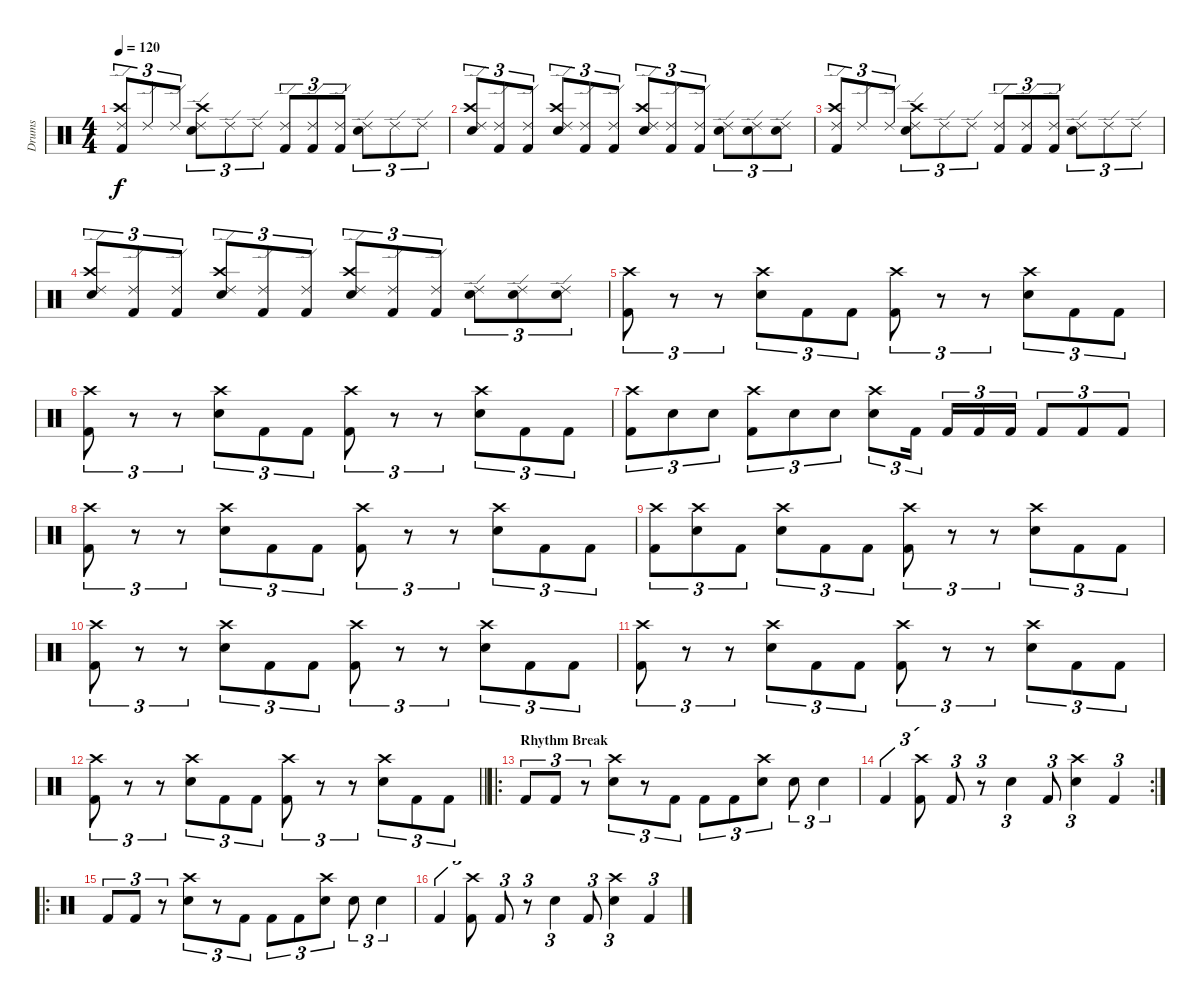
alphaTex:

\track ("Drums" "Drums") {instrument percussion}
\staff {score}
\articulation defaults
\ts (4 4)
\tempo 120
\clef neutral
\ks c
("Ride (edge) 2" "Crash high (hit)" "Kick (hit) 2").8{tu (3 2) dy f} "Ride (edge) 2".8{tu (3 2)} "Ride (edge) 2".8{tu (3 2)} ("Ride (edge) 2" "Crash high (hit)" "Electric Snare (hit)").8{tu (3 2)} "Ride (edge) 2".8{tu (3 2)} "Ride (edge) 2".8{tu (3 2)} ("Ride (edge) 2" "Kick (hit) 2").8{tu (3 2)} ("Ride (edge) 2" "Kick (hit) 2").8{tu (3 2)} ("Ride (edge) 2" "Kick (hit) 2").8{tu (3 2)} ("Ride (edge) 2" "Electric Snare (hit)").8{tu (3 2)} "Ride (edge) 2".8{tu (3 2)} "Ride (edge) 2".8{tu (3 2)} |
("Ride (edge) 2" "Crash high (hit)" "Electric Snare (hit)").8{tu (3 2)} ("Ride (edge) 2" "Kick (hit) 2").8{tu (3 2)} ("Ride (edge) 2" "Kick (hit) 2").8{tu (3 2)} ("Ride (edge) 2" "Crash high (hit)" "Electric Snare (hit)").8{tu (3 2)} ("Ride (edge) 2" "Kick (hit) 2").8{tu (3 2)} ("Ride (edge) 2" "Kick (hit) 2").8{tu (3 2)} ("Ride (edge) 2" "Crash high (hit)" "Electric Snare (hit)").8{tu (3 2)} ("Ride (edge) 2" "Kick (hit) 2").8{tu (3 2)} ("Ride (edge) 2" "Kick (hit) 2").8{tu (3 2)} ("Ride (edge) 2" "Electric Snare (hit)").8{tu (3 2)} ("Ride (edge) 2" "Electric Snare (hit)").8{tu (3 2)} ("Ride (edge) 2" "Electric Snare (hit)").8{tu (3 2)} |
("Ride (edge) 2" "Crash high (hit)" "Kick (hit) 2").8{tu (3 2)} "Ride (edge) 2".8{tu (3 2)} "Ride (edge) 2".8{tu (3 2)} ("Ride (edge) 2" "Crash high (hit)" "Electric Snare (hit)").8{tu (3 2)} "Ride (edge) 2".8{tu (3 2)} "Ride (edge) 2".8{tu (3 2)} ("Ride (edge) 2" "Kick (hit) 2").8{tu (3 2)} ("Ride (edge) 2" "Kick (hit) 2").8{tu (3 2)} ("Ride (edge) 2" "Kick (hit) 2").8{tu (3 2)} ("Ride (edge) 2" "Electric Snare (hit)").8{tu (3 2)} "Ride (edge) 2".8{tu (3 2)} "Ride (edge) 2".8{tu (3 2)} |
("Ride (edge) 2" "Crash high (hit)" "Electric Snare (hit)").8{tu (3 2)} ("Ride (edge) 2" "Kick (hit) 2").8{tu (3 2)} ("Ride (edge) 2" "Kick (hit) 2").8{tu (3 2)} ("Ride (edge) 2" "Crash high (hit)" "Electric Snare (hit)").8{tu (3 2)} ("Ride (edge) 2" "Kick (hit) 2").8{tu (3 2)} ("Ride (edge) 2" "Kick (hit) 2").8{tu (3 2)} ("Ride (edge) 2" "Crash high (hit)" "Electric Snare (hit)").8{tu (3 2)} ("Ride (edge) 2" "Kick (hit) 2").8{tu (3 2)} ("Ride (edge) 2" "Kick (hit) 2").8{tu (3 2)} ("Ride (edge) 2" "Electric Snare (hit)").8{tu (3 2)} ("Ride (edge) 2" "Electric Snare (hit)").8{tu (3 2)} ("Ride (edge) 2" "Electric Snare (hit)").8{tu (3 2)} |
("Kick (hit) 2" "Crash high (hit)").8{tu (3 2)} r.8{tu (3 2)} r.8{tu (3 2)} ("Electric Snare (hit)" "Crash high (hit)").8{tu (3 2)} "Kick (hit) 2".8{tu (3 2)} "Kick (hit) 2".8{tu (3 2)} ("Kick (hit) 2" "Crash high (hit)").8{tu (3 2)} r.8{tu (3 2)} r.8{tu (3 2)} ("Electric Snare (hit)" "Crash high (hit)").8{tu (3 2)} "Kick (hit) 2".8{tu (3 2)} "Kick (hit) 2".8{tu (3 2)} |
("Kick (hit) 2" "Crash high (hit)").8{tu (3 2)} r.8{tu (3 2)} r.8{tu (3 2)} ("Electric Snare (hit)" "Crash high (hit)").8{tu (3 2)} "Kick (hit) 2".8{tu (3 2)} "Kick (hit) 2".8{tu (3 2)} ("Kick (hit) 2" "Crash high (hit)").8{tu (3 2)} r.8{tu (3 2)} r.8{tu (3 2)} ("Electric Snare (hit)" "Crash high (hit)").8{tu (3 2)} "Kick (hit) 2".8{tu (3 2)} "Kick (hit) 2".8{tu (3 2)} |
("Kick (hit) 2" "Crash high (hit)").8{tu (3 2)} "Electric Snare (hit)".8{tu (3 2)} "Electric Snare (hit)".8{tu (3 2)} ("Kick (hit) 2" "Crash high (hit)").8{tu (3 2)} "Electric Snare (hit)".8{tu (3 2)} "Electric Snare (hit)".8{tu (3 2)} ("Electric Snare (hit)" "Crash high (hit)").8{tu (3 2)} "Kick (hit) 2".16{tu (3 2) beam splitsecondary} "Kick (hit) 2".16{tu (3 2)} "Kick (hit) 2".16{tu (3 2)} "Kick (hit) 2".16{tu (3 2)} "Kick (hit) 2".8{tu (3 2)} "Kick (hit) 2".8{tu (3 2)} "Kick (hit) 2".8{tu (3 2)} |
("Kick (hit) 2" "Crash high (hit)").8{tu (3 2)} r.8{tu (3 2)} r.8{tu (3 2)} ("Electric Snare (hit)" "Crash high (hit)").8{tu (3 2)} "Kick (hit) 2".8{tu (3 2)} "Kick (hit) 2".8{tu (3 2)} ("Kick (hit) 2" "Crash high (hit)").8{tu (3 2)} r.8{tu (3 2)} r.8{tu (3 2)} ("Electric Snare (hit)" "Crash high (hit)").8{tu (3 2)} "Kick (hit) 2".8{tu (3 2)} "Kick (hit) 2".8{tu (3 2)} |
("Kick (hit) 2" "Crash high (hit)").8{tu (3 2)} ("Electric Snare (hit)" "Crash high (hit)").8{tu (3 2)} "Kick (hit) 2".8{tu (3 2)} ("Electric Snare (hit)" "Crash high (hit)").8{tu (3 2)} "Kick (hit) 2".8{tu (3 2)} "Kick (hit) 2".8{tu (3 2)} ("Kick (hit) 2" "Crash high (hit)").8{tu (3 2)} r.8{tu (3 2)} r.8{tu (3 2)} ("Electric Snare (hit)" "Crash high (hit)").8{tu (3 2)} "Kick (hit) 2".8{tu (3 2)} "Kick (hit) 2".8{tu (3 2)} |
("Kick (hit) 2" "Crash high (hit)").8{tu (3 2)} r.8{tu (3 2)} r.8{tu (3 2)} ("Electric Snare (hit)" "Crash high (hit)").8{tu (3 2)} "Kick (hit) 2".8{tu (3 2)} "Kick (hit) 2".8{tu (3 2)} ("Kick (hit) 2" "Crash high (hit)").8{tu (3 2)} r.8{tu (3 2)} r.8{tu (3 2)} ("Electric Snare (hit)" "Crash high (hit)").8{tu (3 2)} "Kick (hit) 2".8{tu (3 2)} "Kick (hit) 2".8{tu (3 2)} |
("Kick (hit) 2" "Crash high (hit)").8{tu (3 2)} r.8{tu (3 2)} r.8{tu (3 2)} ("Electric Snare (hit)" "Crash high (hit)").8{tu (3 2)} "Kick (hit) 2".8{tu (3 2)} "Kick (hit) 2".8{tu (3 2)} ("Kick (hit) 2" "Crash high (hit)").8{tu (3 2)} r.8{tu (3 2)} r.8{tu (3 2)} ("Electric Snare (hit)" "Crash high (hit)").8{tu (3 2)} "Kick (hit) 2".8{tu (3 2)} "Kick (hit) 2".8{tu (3 2)} |
\barLineRight lightlight
("Kick (hit) 2" "Crash high (hit)").8{tu (3 2)} r.8{tu (3 2)} r.8{tu (3 2)} ("Electric Snare (hit)" "Crash high (hit)").8{tu (3 2)} "Kick (hit) 2".8{tu (3 2)} "Kick (hit) 2".8{tu (3 2)} ("Kick (hit) 2" "Crash high (hit)").8{tu (3 2)} r.8{tu (3 2)} r.8{tu (3 2)} ("Electric Snare (hit)" "Crash high (hit)").8{tu (3 2)} "Kick (hit) 2".8{tu (3 2)} "Kick (hit) 2".8{tu (3 2)} |
\ro
\section ("" "Rhythm Break")
"Kick (hit) 2".8{tu (3 2)} "Kick (hit) 2".8{tu (3 2)} r.8{tu (3 2)} ("Electric Snare (hit)" "Crash high (hit)").8{tu (3 2)} r.8{tu (3 2)} "Kick (hit) 2".8{tu (3 2)} "Kick (hit) 2".8{tu (3 2)} "Kick (hit) 2".8{tu (3 2)} ("Crash high (hit)" "Electric Snare (hit)").8{tu (3 2)} "Electric Snare (hit)".8{tu (3 2)} "Electric Snare (hit)".4{tu (3 2)} |
\rc 2 "Kick (hit) 2".4{tu (3 2)}
("Crash high (hit)" "Kick (hit) 2").8{tu (3 2)} "Kick (hit) 2".8{tu (3 2)} r.8{tu (3 2)} "Electric Snare (hit)".4{tu (3 2)} "Kick (hit) 2".8{tu (3 2)} ("Crash high (hit)" "Electric Snare (hit)").4{tu (3 2)} "Kick (hit) 2".4{tu (3 2)} |
\ro "Kick (hit) 2".8{tu (3 2)} "Kick (hit) 2".8{tu (3 2)}
r.8{tu (3 2)} ("Electric Snare (hit)" "Crash high (hit)").8{tu (3 2)} r.8{tu (3 2)} "Kick (hit) 2".8{tu (3 2)} "Kick (hit) 2".8{tu (3 2)} "Kick (hit) 2".8{tu (3 2)} ("Crash high (hit)" "Electric Snare (hit)").8{tu (3 2)} "Electric Snare (hit)".8{tu (3 2)} "Electric Snare (hit)".4{tu (3 2)} |
"Kick (hit) 2".4{tu (3 2)} ("Crash high (hit)" "Kick (hit) 2").8{tu (3 2)} "Kick (hit) 2".8{tu (3 2)} r.8{tu (3 2)} "Electric Snare (hit)".4{tu (3 2)} "Kick (hit) 2".8{tu (3 2)} ("Crash high (hit)" "Electric Snare (hit)").4{tu (3 2)} "Kick (hit) 2".4{tu (3 2)}
